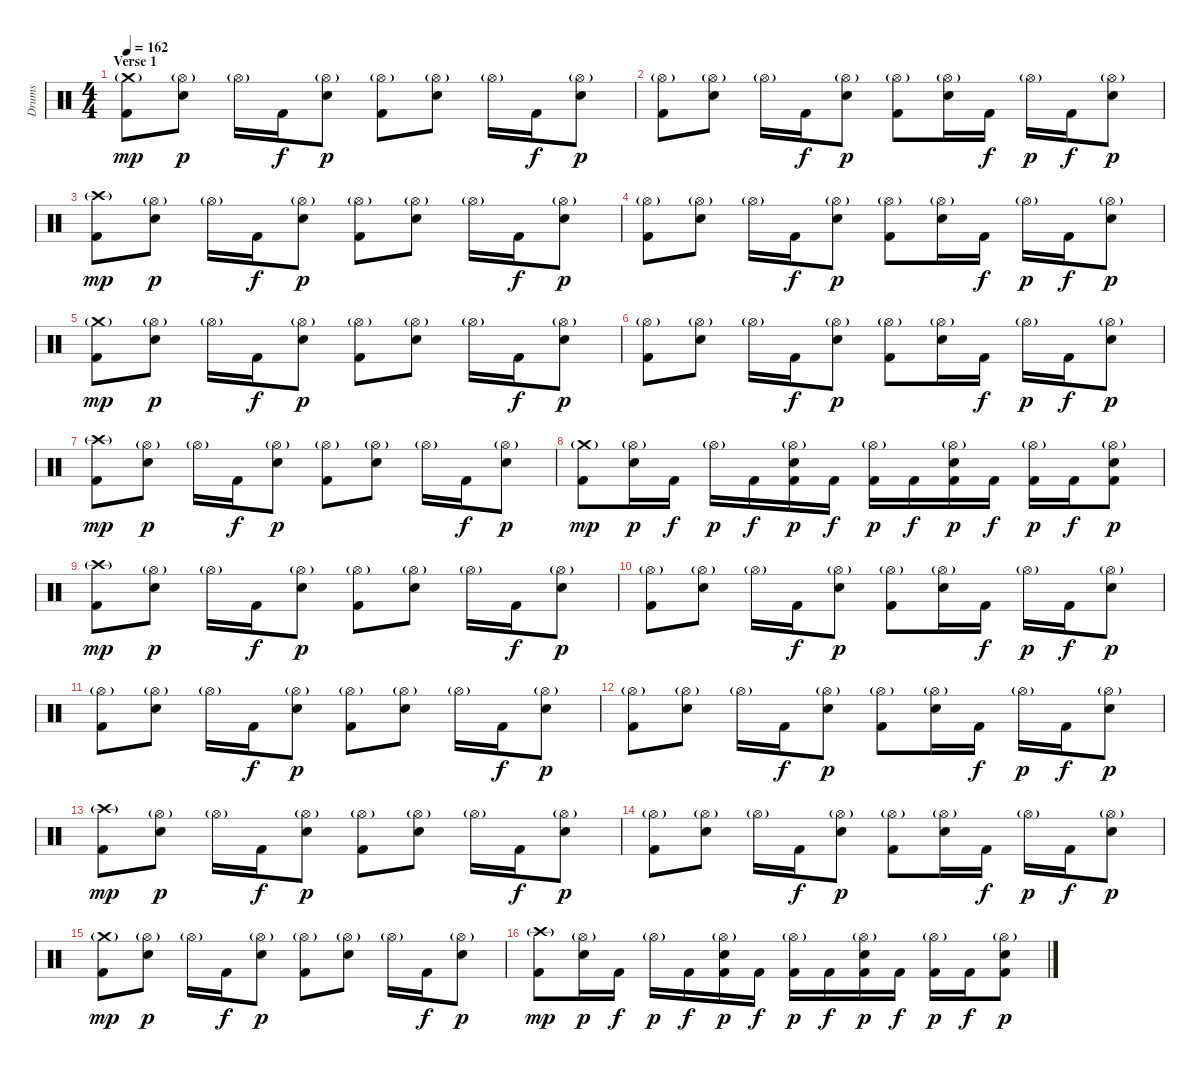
\track ("Drums" "Drums") {instrument percussion}
\staff {score}
\articulation defaults
\ts (4 4)
\section ("" "Verse 1")
\tempo 162
\clef neutral
\ks c
("Crash medium (hit)"{g} "Kick (hit) 2").8{dy mp} ("Hi-Hat (open)"{g} "Snare (hit) 2").8{dy p} "Hi-Hat (open)"{g}.16 "Kick (hit) 2".16{dy f} ("Hi-Hat (open)"{g} "Snare (hit) 2").8{dy p} ("Hi-Hat (open)"{g} "Kick (hit) 2").8 ("Hi-Hat (open)"{g} "Snare (hit) 2").8 "Hi-Hat (open)"{g}.16 "Kick (hit) 2".16{dy f} ("Hi-Hat (open)"{g} "Snare (hit) 2").8{dy p} |
("Hi-Hat (open)"{g} "Kick (hit) 2").8 ("Hi-Hat (open)"{g} "Snare (hit) 2").8 "Hi-Hat (open)"{g}.16 "Kick (hit) 2".16{dy f} ("Hi-Hat (open)"{g} "Snare (hit) 2").8{dy p} ("Hi-Hat (open)"{g} "Kick (hit) 2").8 ("Hi-Hat (open)"{g} "Snare (hit) 2").16 "Kick (hit) 2".16{dy f} "Hi-Hat (open)"{g}.16{dy p} "Kick (hit) 2".16{dy f} ("Hi-Hat (open)"{g} "Snare (hit) 2").8{dy p} |
("Crash high (hit)"{g} "Kick (hit) 2").8{dy mp} ("Hi-Hat (open)"{g} "Snare (hit) 2").8{dy p} "Hi-Hat (open)"{g}.16 "Kick (hit) 2".16{dy f} ("Hi-Hat (open)"{g} "Snare (hit) 2").8{dy p} ("Hi-Hat (open)"{g} "Kick (hit) 2").8 ("Hi-Hat (open)"{g} "Snare (hit) 2").8 "Hi-Hat (open)"{g}.16 "Kick (hit) 2".16{dy f} ("Hi-Hat (open)"{g} "Snare (hit) 2").8{dy p} |
("Hi-Hat (open)"{g} "Kick (hit) 2").8 ("Hi-Hat (open)"{g} "Snare (hit) 2").8 "Hi-Hat (open)"{g}.16 "Kick (hit) 2".16{dy f} ("Hi-Hat (open)"{g} "Snare (hit) 2").8{dy p} ("Hi-Hat (open)"{g} "Kick (hit) 2").8 ("Hi-Hat (open)"{g} "Snare (hit) 2").16 "Kick (hit) 2".16{dy f} "Hi-Hat (open)"{g}.16{dy p} "Kick (hit) 2".16{dy f} ("Hi-Hat (open)"{g} "Snare (hit) 2").8{dy p} |
("Crash medium (hit)"{g} "Kick (hit) 2").8{dy mp} ("Hi-Hat (open)"{g} "Snare (hit) 2").8{dy p} "Hi-Hat (open)"{g}.16 "Kick (hit) 2".16{dy f} ("Hi-Hat (open)"{g} "Snare (hit) 2").8{dy p} ("Hi-Hat (open)"{g} "Kick (hit) 2").8 ("Hi-Hat (open)"{g} "Snare (hit) 2").8 "Hi-Hat (open)"{g}.16 "Kick (hit) 2".16{dy f} ("Hi-Hat (open)"{g} "Snare (hit) 2").8{dy p} |
("Hi-Hat (open)"{g} "Kick (hit) 2").8 ("Hi-Hat (open)"{g} "Snare (hit) 2").8 "Hi-Hat (open)"{g}.16 "Kick (hit) 2".16{dy f} ("Hi-Hat (open)"{g} "Snare (hit) 2").8{dy p} ("Hi-Hat (open)"{g} "Kick (hit) 2").8 ("Hi-Hat (open)"{g} "Snare (hit) 2").16 "Kick (hit) 2".16{dy f} "Hi-Hat (open)"{g}.16{dy p} "Kick (hit) 2".16{dy f} ("Hi-Hat (open)"{g} "Snare (hit) 2").8{dy p} |
("Crash high (hit)"{g} "Kick (hit) 2").8{dy mp} ("Hi-Hat (open)"{g} "Snare (hit) 2").8{dy p} "Hi-Hat (open)"{g}.16 "Kick (hit) 2".16{dy f} ("Hi-Hat (open)"{g} "Snare (hit) 2").8{dy p} ("Hi-Hat (open)"{g} "Kick (hit) 2").8 ("Hi-Hat (open)"{g} "Snare (hit) 2").8 "Hi-Hat (open)"{g}.16 "Kick (hit) 2".16{dy f} ("Hi-Hat (open)"{g} "Snare (hit) 2").8{dy p} |
("Crash medium (hit)"{g} "Kick (hit) 2").8{dy mp} ("Hi-Hat (open)"{g} "Snare (hit) 2").16{dy p} "Kick (hit) 2".16{dy f} "Hi-Hat (open)"{g}.16{dy p} "Kick (hit) 2".16{dy f} ("Hi-Hat (open)"{g} "Snare (hit) 2" "Kick (hit) 2").16{dy p} "Kick (hit) 2".16{dy f} ("Hi-Hat (open)"{g} "Kick (hit) 2").16{dy p} "Kick (hit) 2".16{dy f} ("Hi-Hat (open)"{g} "Snare (hit) 2" "Kick (hit) 2").16{dy p} "Kick (hit) 2".16{dy f} ("Hi-Hat (open)"{g} "Kick (hit) 2").16{dy p} "Kick (hit) 2".16{dy f} ("Hi-Hat (open)"{g} "Snare (hit) 2" "Kick (hit) 2").8{dy p} |
("Crash high (hit)"{g} "Kick (hit) 2").8{dy mp} ("Hi-Hat (open)"{g} "Snare (hit) 2").8{dy p} "Hi-Hat (open)"{g}.16 "Kick (hit) 2".16{dy f} ("Hi-Hat (open)"{g} "Snare (hit) 2").8{dy p} ("Hi-Hat (open)"{g} "Kick (hit) 2").8 ("Hi-Hat (open)"{g} "Snare (hit) 2").8 "Hi-Hat (open)"{g}.16 "Kick (hit) 2".16{dy f} ("Hi-Hat (open)"{g} "Snare (hit) 2").8{dy p} |
("Hi-Hat (open)"{g} "Kick (hit) 2").8 ("Hi-Hat (open)"{g} "Snare (hit) 2").8 "Hi-Hat (open)"{g}.16 "Kick (hit) 2".16{dy f} ("Hi-Hat (open)"{g} "Snare (hit) 2").8{dy p} ("Hi-Hat (open)"{g} "Kick (hit) 2").8 ("Hi-Hat (open)"{g} "Snare (hit) 2").16 "Kick (hit) 2".16{dy f} "Hi-Hat (open)"{g}.16{dy p} "Kick (hit) 2".16{dy f} ("Hi-Hat (open)"{g} "Snare (hit) 2").8{dy p} |
("Hi-Hat (open)"{g} "Kick (hit) 2").8 ("Hi-Hat (open)"{g} "Snare (hit) 2").8 "Hi-Hat (open)"{g}.16 "Kick (hit) 2".16{dy f} ("Hi-Hat (open)"{g} "Snare (hit) 2").8{dy p} ("Hi-Hat (open)"{g} "Kick (hit) 2").8 ("Hi-Hat (open)"{g} "Snare (hit) 2").8 "Hi-Hat (open)"{g}.16 "Kick (hit) 2".16{dy f} ("Hi-Hat (open)"{g} "Snare (hit) 2").8{dy p} |
("Hi-Hat (open)"{g} "Kick (hit) 2").8 ("Hi-Hat (open)"{g} "Snare (hit) 2").8 "Hi-Hat (open)"{g}.16 "Kick (hit) 2".16{dy f} ("Hi-Hat (open)"{g} "Snare (hit) 2").8{dy p} ("Hi-Hat (open)"{g} "Kick (hit) 2").8 ("Hi-Hat (open)"{g} "Snare (hit) 2").16 "Kick (hit) 2".16{dy f} "Hi-Hat (open)"{g}.16{dy p} "Kick (hit) 2".16{dy f} ("Hi-Hat (open)"{g} "Snare (hit) 2").8{dy p} |
("Crash high (hit)"{g} "Kick (hit) 2").8{dy mp} ("Hi-Hat (open)"{g} "Snare (hit) 2").8{dy p} "Hi-Hat (open)"{g}.16 "Kick (hit) 2".16{dy f} ("Hi-Hat (open)"{g} "Snare (hit) 2").8{dy p} ("Hi-Hat (open)"{g} "Kick (hit) 2").8 ("Hi-Hat (open)"{g} "Snare (hit) 2").8 "Hi-Hat (open)"{g}.16 "Kick (hit) 2".16{dy f} ("Hi-Hat (open)"{g} "Snare (hit) 2").8{dy p} |
("Hi-Hat (open)"{g} "Kick (hit) 2").8 ("Hi-Hat (open)"{g} "Snare (hit) 2").8 "Hi-Hat (open)"{g}.16 "Kick (hit) 2".16{dy f} ("Hi-Hat (open)"{g} "Snare (hit) 2").8{dy p} ("Hi-Hat (open)"{g} "Kick (hit) 2").8 ("Hi-Hat (open)"{g} "Snare (hit) 2").16 "Kick (hit) 2".16{dy f} "Hi-Hat (open)"{g}.16{dy p} "Kick (hit) 2".16{dy f} ("Hi-Hat (open)"{g} "Snare (hit) 2").8{dy p} |
("Crash medium (hit)"{g} "Kick (hit) 2").8{dy mp} ("Hi-Hat (open)"{g} "Snare (hit) 2").8{dy p} "Hi-Hat (open)"{g}.16 "Kick (hit) 2".16{dy f} ("Hi-Hat (open)"{g} "Snare (hit) 2").8{dy p} ("Hi-Hat (open)"{g} "Kick (hit) 2").8 ("Hi-Hat (open)"{g} "Snare (hit) 2").8 "Hi-Hat (open)"{g}.16 "Kick (hit) 2".16{dy f} ("Hi-Hat (open)"{g} "Snare (hit) 2").8{dy p} |
("Crash high (hit)"{g} "Kick (hit) 2").8{dy mp} ("Hi-Hat (open)"{g} "Snare (hit) 2").16{dy p} "Kick (hit) 2".16{dy f} "Hi-Hat (open)"{g}.16{dy p} "Kick (hit) 2".16{dy f} ("Hi-Hat (open)"{g} "Snare (hit) 2" "Kick (hit) 2").16{dy p} "Kick (hit) 2".16{dy f} ("Hi-Hat (open)"{g} "Kick (hit) 2").16{dy p} "Kick (hit) 2".16{dy f} ("Hi-Hat (open)"{g} "Snare (hit) 2" "Kick (hit) 2").16{dy p} "Kick (hit) 2".16{dy f} ("Hi-Hat (open)"{g} "Kick (hit) 2").16{dy p} "Kick (hit) 2".16{dy f} ("Hi-Hat (open)"{g} "Snare (hit) 2" "Kick (hit) 2").8{dy p}
